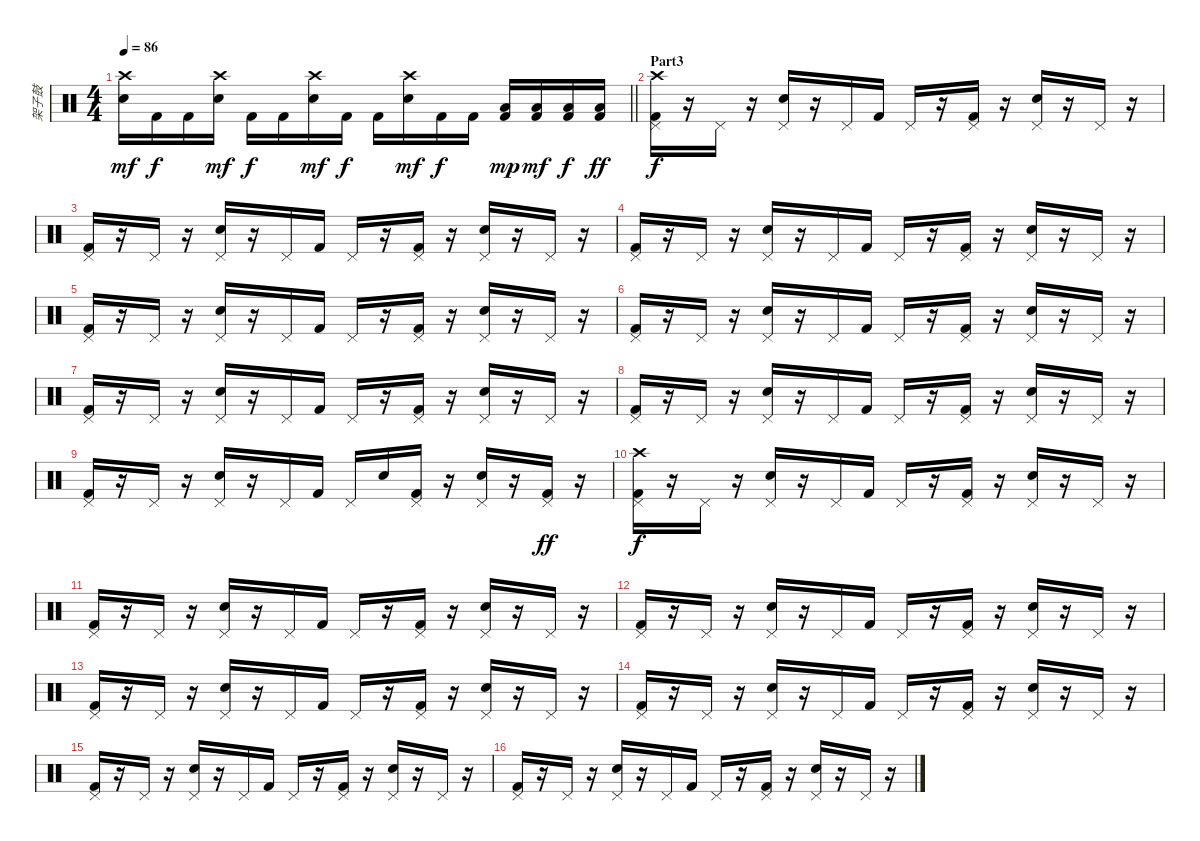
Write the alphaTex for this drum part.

\track ("架子鼓" "架子鼓") {instrument percussion}
\staff {score}
\articulation defaults
\ts (4 4)
\tempo 86
\clef neutral
\barLineRight lightlight
\ks c
("Crash high (hit)" "Snare (hit) 2").16{dy mf} "Kick (hit) 2".16{dy f} "Kick (hit) 2".16 ("Crash high (hit)" "Snare (hit) 2").16{dy mf} "Kick (hit) 2".16{dy f} "Kick (hit) 2".16 ("Crash high (hit)" "Snare (hit) 2").16{dy mf} "Kick (hit) 2".16{dy f} "Kick (hit) 2".16 ("Crash high (hit)" "Snare (hit) 2").16{dy mf} "Kick (hit) 2".16{dy f} "Kick (hit) 2".16 ("Low Floor Tom (hit)" "Kick (hit) 2").16{dy mp} ("Low Floor Tom (hit)" "Kick (hit) 2").16{dy mf} ("Low Floor Tom (hit)" "Kick (hit) 2").16{dy f} ("Low Floor Tom (hit)" "Kick (hit) 2").16{dy ff} |
\section ("" "Part3")
("Crash high (hit)" "Pedal Hi-Hat (hit)" "Kick (hit) 2").16{dy f} r.16 "Pedal Hi-Hat (hit)".16 r.16 ("Pedal Hi-Hat (hit)" "Snare (hit) 2").16 r.16 "Pedal Hi-Hat (hit)".16 "Kick (hit) 2".16 "Pedal Hi-Hat (hit)".16 r.16 ("Pedal Hi-Hat (hit)" "Kick (hit) 2").16 r.16 ("Pedal Hi-Hat (hit)" "Snare (hit) 2").16 r.16 "Pedal Hi-Hat (hit)".16 r.16 |
("Pedal Hi-Hat (hit)" "Kick (hit) 2").16 r.16 "Pedal Hi-Hat (hit)".16 r.16 ("Pedal Hi-Hat (hit)" "Snare (hit) 2").16 r.16 "Pedal Hi-Hat (hit)".16 "Kick (hit) 2".16 "Pedal Hi-Hat (hit)".16 r.16 ("Pedal Hi-Hat (hit)" "Kick (hit) 2").16 r.16 ("Pedal Hi-Hat (hit)" "Snare (hit) 2").16 r.16 "Pedal Hi-Hat (hit)".16 r.16 |
("Pedal Hi-Hat (hit)" "Kick (hit) 2").16 r.16 "Pedal Hi-Hat (hit)".16 r.16 ("Pedal Hi-Hat (hit)" "Snare (hit) 2").16 r.16 "Pedal Hi-Hat (hit)".16 "Kick (hit) 2".16 "Pedal Hi-Hat (hit)".16 r.16 ("Pedal Hi-Hat (hit)" "Kick (hit) 2").16 r.16 ("Pedal Hi-Hat (hit)" "Snare (hit) 2").16 r.16 "Pedal Hi-Hat (hit)".16 r.16 |
("Pedal Hi-Hat (hit)" "Kick (hit) 2").16 r.16 "Pedal Hi-Hat (hit)".16 r.16 ("Pedal Hi-Hat (hit)" "Snare (hit) 2").16 r.16 "Pedal Hi-Hat (hit)".16 "Kick (hit) 2".16 "Pedal Hi-Hat (hit)".16 r.16 ("Pedal Hi-Hat (hit)" "Kick (hit) 2").16 r.16 ("Pedal Hi-Hat (hit)" "Snare (hit) 2").16 r.16 "Pedal Hi-Hat (hit)".16 r.16 |
("Pedal Hi-Hat (hit)" "Kick (hit) 2").16 r.16 "Pedal Hi-Hat (hit)".16 r.16 ("Pedal Hi-Hat (hit)" "Snare (hit) 2").16 r.16 "Pedal Hi-Hat (hit)".16 "Kick (hit) 2".16 "Pedal Hi-Hat (hit)".16 r.16 ("Pedal Hi-Hat (hit)" "Kick (hit) 2").16 r.16 ("Pedal Hi-Hat (hit)" "Snare (hit) 2").16 r.16 "Pedal Hi-Hat (hit)".16 r.16 |
("Pedal Hi-Hat (hit)" "Kick (hit) 2").16 r.16 "Pedal Hi-Hat (hit)".16 r.16 ("Pedal Hi-Hat (hit)" "Snare (hit) 2").16 r.16 "Pedal Hi-Hat (hit)".16 "Kick (hit) 2".16 "Pedal Hi-Hat (hit)".16 r.16 ("Pedal Hi-Hat (hit)" "Kick (hit) 2").16 r.16 ("Pedal Hi-Hat (hit)" "Snare (hit) 2").16 r.16 "Pedal Hi-Hat (hit)".16 r.16 |
("Pedal Hi-Hat (hit)" "Kick (hit) 2").16 r.16 "Pedal Hi-Hat (hit)".16 r.16 ("Pedal Hi-Hat (hit)" "Snare (hit) 2").16 r.16 "Pedal Hi-Hat (hit)".16 "Kick (hit) 2".16 "Pedal Hi-Hat (hit)".16 r.16 ("Pedal Hi-Hat (hit)" "Kick (hit) 2").16 r.16 ("Pedal Hi-Hat (hit)" "Snare (hit) 2").16 r.16 "Pedal Hi-Hat (hit)".16 r.16 |
("Pedal Hi-Hat (hit)" "Kick (hit) 2").16 r.16 "Pedal Hi-Hat (hit)".16 r.16 ("Pedal Hi-Hat (hit)" "Snare (hit) 2").16 r.16 "Pedal Hi-Hat (hit)".16 "Kick (hit) 2".16 "Pedal Hi-Hat (hit)".16 "Snare (hit) 2".16 ("Pedal Hi-Hat (hit)" "Kick (hit) 2").16 r.16 ("Pedal Hi-Hat (hit)" "Snare (hit) 2").16 r.16 ("Pedal Hi-Hat (hit)" "Kick (hit) 2").16{dy ff} r.16 |
("Crash high (hit)" "Pedal Hi-Hat (hit)" "Kick (hit) 2").16{dy f} r.16 "Pedal Hi-Hat (hit)".16 r.16 ("Pedal Hi-Hat (hit)" "Snare (hit) 2").16 r.16 "Pedal Hi-Hat (hit)".16 "Kick (hit) 2".16 "Pedal Hi-Hat (hit)".16 r.16 ("Pedal Hi-Hat (hit)" "Kick (hit) 2").16 r.16 ("Pedal Hi-Hat (hit)" "Snare (hit) 2").16 r.16 "Pedal Hi-Hat (hit)".16 r.16 |
("Pedal Hi-Hat (hit)" "Kick (hit) 2").16 r.16 "Pedal Hi-Hat (hit)".16 r.16 ("Pedal Hi-Hat (hit)" "Snare (hit) 2").16 r.16 "Pedal Hi-Hat (hit)".16 "Kick (hit) 2".16 "Pedal Hi-Hat (hit)".16 r.16 ("Pedal Hi-Hat (hit)" "Kick (hit) 2").16 r.16 ("Pedal Hi-Hat (hit)" "Snare (hit) 2").16 r.16 "Pedal Hi-Hat (hit)".16 r.16 |
("Pedal Hi-Hat (hit)" "Kick (hit) 2").16 r.16 "Pedal Hi-Hat (hit)".16 r.16 ("Pedal Hi-Hat (hit)" "Snare (hit) 2").16 r.16 "Pedal Hi-Hat (hit)".16 "Kick (hit) 2".16 "Pedal Hi-Hat (hit)".16 r.16 ("Pedal Hi-Hat (hit)" "Kick (hit) 2").16 r.16 ("Pedal Hi-Hat (hit)" "Snare (hit) 2").16 r.16 "Pedal Hi-Hat (hit)".16 r.16 |
("Pedal Hi-Hat (hit)" "Kick (hit) 2").16 r.16 "Pedal Hi-Hat (hit)".16 r.16 ("Pedal Hi-Hat (hit)" "Snare (hit) 2").16 r.16 "Pedal Hi-Hat (hit)".16 "Kick (hit) 2".16 "Pedal Hi-Hat (hit)".16 r.16 ("Pedal Hi-Hat (hit)" "Kick (hit) 2").16 r.16 ("Pedal Hi-Hat (hit)" "Snare (hit) 2").16 r.16 "Pedal Hi-Hat (hit)".16 r.16 |
("Pedal Hi-Hat (hit)" "Kick (hit) 2").16 r.16 "Pedal Hi-Hat (hit)".16 r.16 ("Pedal Hi-Hat (hit)" "Snare (hit) 2").16 r.16 "Pedal Hi-Hat (hit)".16 "Kick (hit) 2".16 "Pedal Hi-Hat (hit)".16 r.16 ("Pedal Hi-Hat (hit)" "Kick (hit) 2").16 r.16 ("Pedal Hi-Hat (hit)" "Snare (hit) 2").16 r.16 "Pedal Hi-Hat (hit)".16 r.16 |
("Pedal Hi-Hat (hit)" "Kick (hit) 2").16 r.16 "Pedal Hi-Hat (hit)".16 r.16 ("Pedal Hi-Hat (hit)" "Snare (hit) 2").16 r.16 "Pedal Hi-Hat (hit)".16 "Kick (hit) 2".16 "Pedal Hi-Hat (hit)".16 r.16 ("Pedal Hi-Hat (hit)" "Kick (hit) 2").16 r.16 ("Pedal Hi-Hat (hit)" "Snare (hit) 2").16 r.16 "Pedal Hi-Hat (hit)".16 r.16 |
("Pedal Hi-Hat (hit)" "Kick (hit) 2").16 r.16 "Pedal Hi-Hat (hit)".16 r.16 ("Pedal Hi-Hat (hit)" "Snare (hit) 2").16 r.16 "Pedal Hi-Hat (hit)".16 "Kick (hit) 2".16 "Pedal Hi-Hat (hit)".16 r.16 ("Pedal Hi-Hat (hit)" "Kick (hit) 2").16 r.16 ("Pedal Hi-Hat (hit)" "Snare (hit) 2").16 r.16 "Pedal Hi-Hat (hit)".16 r.16
